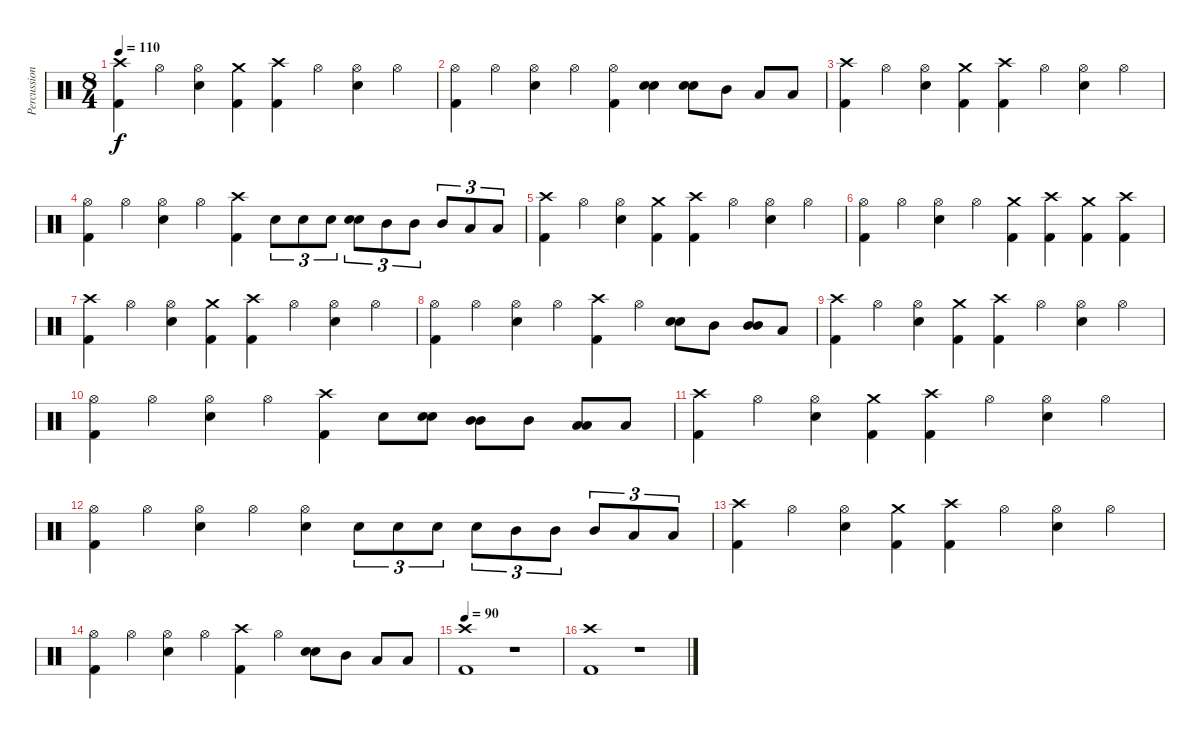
\track ("Percussion" "Percussion") {instrument percussion}
\staff {score}
\articulation defaults
\ts (8 4)
\tempo 110
\clef neutral
\ks c
("Crash high (hit)" "Kick (hit) 2").4{dy f} "Hi-Hat (open)".4 ("Hi-Hat (open)" "Electric Snare (hit)").4 ("Crash medium (hit)" "Kick (hit) 2").4 ("Crash high (hit)" "Kick (hit) 2").4 "Hi-Hat (open)".4 ("Hi-Hat (open)" "Electric Snare (hit)").4 "Hi-Hat (open)".4 |
("Hi-Hat (open)" "Kick (hit) 2").4 "Hi-Hat (open)".4 ("Hi-Hat (open)" "Electric Snare (hit)").4 "Hi-Hat (open)".4 ("Hi-Hat (open)" "Kick (hit) 2").4 ("Electric Snare (hit)" "Electric Snare (hit)").4{bu 60} ("Electric Snare (hit)" "Electric Snare (hit)").8{bu 60} "Mid Tom (hit)".8 "Low Tom (hit)".8 "Low Tom (hit)".8 |
("Crash high (hit)" "Kick (hit) 2").4 "Hi-Hat (open)".4 ("Hi-Hat (open)" "Electric Snare (hit)").4 ("Crash medium (hit)" "Kick (hit) 2").4 ("Crash high (hit)" "Kick (hit) 2").4 "Hi-Hat (open)".4 ("Hi-Hat (open)" "Electric Snare (hit)").4 "Hi-Hat (open)".4 |
("Hi-Hat (open)" "Kick (hit) 2").4 "Hi-Hat (open)".4 ("Hi-Hat (open)" "Electric Snare (hit)").4 "Hi-Hat (open)".4 ("Crash high (hit)" "Kick (hit) 2").4 "Electric Snare (hit)".8{tu (3 2)} "Electric Snare (hit)".8{tu (3 2)} "Electric Snare (hit)".8{tu (3 2)} ("Electric Snare (hit)" "Electric Snare (hit)").8{tu (3 2) bu 60} "Mid Tom (hit)".8{tu (3 2)} "Mid Tom (hit)".8{tu (3 2)} "Mid Tom (hit)".8{tu (3 2)} "Low Tom (hit)".8{tu (3 2)} "Low Tom (hit)".8{tu (3 2)} |
("Crash high (hit)" "Kick (hit) 2").4 "Hi-Hat (open)".4 ("Hi-Hat (open)" "Electric Snare (hit)").4 ("Crash medium (hit)" "Kick (hit) 2").4 ("Crash high (hit)" "Kick (hit) 2").4 "Hi-Hat (open)".4 ("Hi-Hat (open)" "Electric Snare (hit)").4 "Hi-Hat (open)".4 |
("Hi-Hat (open)" "Kick (hit) 2").4 "Hi-Hat (open)".4 ("Hi-Hat (open)" "Electric Snare (hit)").4 "Hi-Hat (open)".4 ("Crash medium (hit)" "Kick (hit) 2").4 ("Crash high (hit)" "Kick (hit) 2").4 ("Crash medium (hit)" "Kick (hit) 2").4 ("Crash high (hit)" "Kick (hit) 2").4 |
("Crash high (hit)" "Kick (hit) 2").4 "Hi-Hat (open)".4 ("Hi-Hat (open)" "Electric Snare (hit)").4 ("Crash medium (hit)" "Kick (hit) 2").4 ("Crash high (hit)" "Kick (hit) 2").4 "Hi-Hat (open)".4 ("Hi-Hat (open)" "Electric Snare (hit)").4 "Hi-Hat (open)".4 |
("Hi-Hat (open)" "Kick (hit) 2").4 "Hi-Hat (open)".4 ("Hi-Hat (open)" "Electric Snare (hit)").4 "Hi-Hat (open)".4 ("Crash high (hit)" "Kick (hit) 2").4 "Hi-Hat (open)".4 ("Electric Snare (hit)" "Electric Snare (hit)").8{bu 60} "Mid Tom (hit)".8 ("Mid Tom (hit)" "Mid Tom (hit)").8{bu 60} "Low Tom (hit)".8 |
("Crash high (hit)" "Kick (hit) 2").4 "Hi-Hat (open)".4 ("Hi-Hat (open)" "Electric Snare (hit)").4 ("Crash medium (hit)" "Kick (hit) 2").4 ("Crash high (hit)" "Kick (hit) 2").4 "Hi-Hat (open)".4 ("Hi-Hat (open)" "Electric Snare (hit)").4 "Hi-Hat (open)".4 |
("Hi-Hat (open)" "Kick (hit) 2").4 "Hi-Hat (open)".4 ("Hi-Hat (open)" "Electric Snare (hit)").4 "Hi-Hat (open)".4 ("Crash high (hit)" "Kick (hit) 2").4 "Electric Snare (hit)".8 ("Electric Snare (hit)" "Electric Snare (hit)").8{bu 60} ("Mid Tom (hit)" "Mid Tom (hit)").8{bu 60} "Mid Tom (hit)".8 ("Low Tom (hit)" "Low Tom (hit)").8{bu 60} "Low Tom (hit)".8 |
("Crash high (hit)" "Kick (hit) 2").4 "Hi-Hat (open)".4 ("Hi-Hat (open)" "Electric Snare (hit)").4 ("Crash medium (hit)" "Kick (hit) 2").4 ("Crash high (hit)" "Kick (hit) 2").4 "Hi-Hat (open)".4 ("Hi-Hat (open)" "Electric Snare (hit)").4 "Hi-Hat (open)".4 |
("Hi-Hat (open)" "Kick (hit) 2").4 "Hi-Hat (open)".4 ("Hi-Hat (open)" "Electric Snare (hit)").4 "Hi-Hat (open)".4 ("Hi-Hat (open)" "Electric Snare (hit)").4 "Electric Snare (hit)".8{tu (3 2)} "Electric Snare (hit)".8{tu (3 2)} "Electric Snare (hit)".8{tu (3 2)} "Electric Snare (hit)".8{tu (3 2)} "Mid Tom (hit)".8{tu (3 2)} "Mid Tom (hit)".8{tu (3 2)} "Mid Tom (hit)".8{tu (3 2)} "Low Tom (hit)".8{tu (3 2)} "Low Tom (hit)".8{tu (3 2)} |
("Crash high (hit)" "Kick (hit) 2").4 "Hi-Hat (open)".4 ("Hi-Hat (open)" "Electric Snare (hit)").4 ("Crash medium (hit)" "Kick (hit) 2").4 ("Crash high (hit)" "Kick (hit) 2").4 "Hi-Hat (open)".4 ("Hi-Hat (open)" "Electric Snare (hit)").4 "Hi-Hat (open)".4 |
("Hi-Hat (open)" "Kick (hit) 2").4 "Hi-Hat (open)".4 ("Hi-Hat (open)" "Electric Snare (hit)").4 "Hi-Hat (open)".4 ("Crash high (hit)" "Kick (hit) 2").4 "Hi-Hat (open)".4 ("Electric Snare (hit)" "Electric Snare (hit)").8{bu 60} "Mid Tom (hit)".8 "Low Tom (hit)".8 "Low Tom (hit)".8 |
\tempo 90
("Crash high (hit)" "Kick (hit) 2").1 r.1 |
("Crash high (hit)" "Kick (hit) 2").1 r.1
